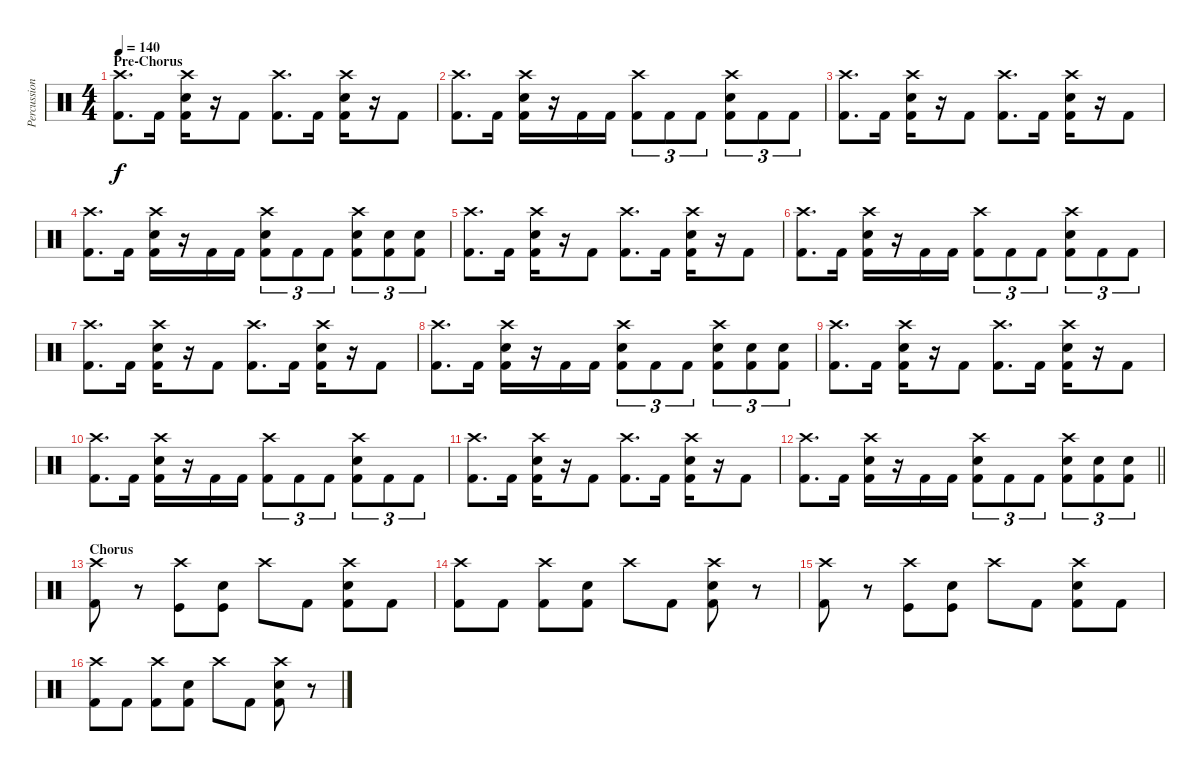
\track ("Percussion" "Percussion") {instrument percussion}
\staff {score}
\articulation defaults
\ts (4 4)
\section ("" "Pre-Chorus")
\tempo 140
\clef neutral
\ks c
("Crash high (hit)" "Kick (hit) 2").8{d dy f} "Kick (hit) 2".16 ("Crash high (hit)" "Electric Snare (hit)" "Kick (hit) 2").16 r.16 "Kick (hit) 2".8 ("Crash high (hit)" "Kick (hit) 2").8{d} "Kick (hit) 2".16 ("Crash high (hit)" "Electric Snare (hit)" "Kick (hit) 2").16 r.16 "Kick (hit) 2".8 |
("Crash high (hit)" "Kick (hit) 2").8{d} "Kick (hit) 2".16 ("Crash high (hit)" "Electric Snare (hit)" "Kick (hit) 2").16 r.16 "Kick (hit) 2".16 "Kick (hit) 2".16 ("Crash high (hit)" "Kick (hit) 2").8{tu (3 2)} "Kick (hit) 2".8{tu (3 2)} "Kick (hit) 2".8{tu (3 2)} ("Crash high (hit)" "Electric Snare (hit)" "Kick (hit) 2").8{tu (3 2)} "Kick (hit) 2".8{tu (3 2)} "Kick (hit) 2".8{tu (3 2)} |
("Crash high (hit)" "Kick (hit) 2").8{d} "Kick (hit) 2".16 ("Crash high (hit)" "Electric Snare (hit)" "Kick (hit) 2").16 r.16 "Kick (hit) 2".8 ("Crash high (hit)" "Kick (hit) 2").8{d} "Kick (hit) 2".16 ("Crash high (hit)" "Electric Snare (hit)" "Kick (hit) 2").16 r.16 "Kick (hit) 2".8 |
("Crash high (hit)" "Kick (hit) 2").8{d} "Kick (hit) 2".16 ("Crash high (hit)" "Electric Snare (hit)" "Kick (hit) 2").16 r.16 "Kick (hit) 2".16 "Kick (hit) 2".16 ("Crash high (hit)" "Electric Snare (hit)" "Kick (hit) 2").8{tu (3 2)} "Kick (hit) 2".8{tu (3 2)} "Kick (hit) 2".8{tu (3 2)} ("Crash high (hit)" "Electric Snare (hit)" "Kick (hit) 2").8{tu (3 2)} ("Electric Snare (hit)" "Kick (hit) 2").8{tu (3 2)} ("Electric Snare (hit)" "Kick (hit) 2").8{tu (3 2)} |
("Crash high (hit)" "Kick (hit) 2").8{d} "Kick (hit) 2".16 ("Crash high (hit)" "Electric Snare (hit)" "Kick (hit) 2").16 r.16 "Kick (hit) 2".8 ("Crash high (hit)" "Kick (hit) 2").8{d} "Kick (hit) 2".16 ("Crash high (hit)" "Electric Snare (hit)" "Kick (hit) 2").16 r.16 "Kick (hit) 2".8 |
("Crash high (hit)" "Kick (hit) 2").8{d} "Kick (hit) 2".16 ("Crash high (hit)" "Electric Snare (hit)" "Kick (hit) 2").16 r.16 "Kick (hit) 2".16 "Kick (hit) 2".16 ("Crash high (hit)" "Kick (hit) 2").8{tu (3 2)} "Kick (hit) 2".8{tu (3 2)} "Kick (hit) 2".8{tu (3 2)} ("Crash high (hit)" "Electric Snare (hit)" "Kick (hit) 2").8{tu (3 2)} "Kick (hit) 2".8{tu (3 2)} "Kick (hit) 2".8{tu (3 2)} |
("Crash high (hit)" "Kick (hit) 2").8{d} "Kick (hit) 2".16 ("Crash high (hit)" "Electric Snare (hit)" "Kick (hit) 2").16 r.16 "Kick (hit) 2".8 ("Crash high (hit)" "Kick (hit) 2").8{d} "Kick (hit) 2".16 ("Crash high (hit)" "Electric Snare (hit)" "Kick (hit) 2").16 r.16 "Kick (hit) 2".8 |
("Crash high (hit)" "Kick (hit) 2").8{d} "Kick (hit) 2".16 ("Crash high (hit)" "Electric Snare (hit)" "Kick (hit) 2").16 r.16 "Kick (hit) 2".16 "Kick (hit) 2".16 ("Crash high (hit)" "Electric Snare (hit)" "Kick (hit) 2").8{tu (3 2)} "Kick (hit) 2".8{tu (3 2)} "Kick (hit) 2".8{tu (3 2)} ("Crash high (hit)" "Electric Snare (hit)" "Kick (hit) 2").8{tu (3 2)} ("Electric Snare (hit)" "Kick (hit) 2").8{tu (3 2)} ("Electric Snare (hit)" "Kick (hit) 2").8{tu (3 2)} |
("Crash high (hit)" "Kick (hit) 2").8{d} "Kick (hit) 2".16 ("Crash high (hit)" "Electric Snare (hit)" "Kick (hit) 2").16 r.16 "Kick (hit) 2".8 ("Crash high (hit)" "Kick (hit) 2").8{d} "Kick (hit) 2".16 ("Crash high (hit)" "Electric Snare (hit)" "Kick (hit) 2").16 r.16 "Kick (hit) 2".8 |
("Crash high (hit)" "Kick (hit) 2").8{d} "Kick (hit) 2".16 ("Crash high (hit)" "Electric Snare (hit)" "Kick (hit) 2").16 r.16 "Kick (hit) 2".16 "Kick (hit) 2".16 ("Crash high (hit)" "Kick (hit) 2").8{tu (3 2)} "Kick (hit) 2".8{tu (3 2)} "Kick (hit) 2".8{tu (3 2)} ("Crash high (hit)" "Electric Snare (hit)" "Kick (hit) 2").8{tu (3 2)} "Kick (hit) 2".8{tu (3 2)} "Kick (hit) 2".8{tu (3 2)} |
("Crash high (hit)" "Kick (hit) 2").8{d} "Kick (hit) 2".16 ("Crash high (hit)" "Electric Snare (hit)" "Kick (hit) 2").16 r.16 "Kick (hit) 2".8 ("Crash high (hit)" "Kick (hit) 2").8{d} "Kick (hit) 2".16 ("Crash high (hit)" "Electric Snare (hit)" "Kick (hit) 2").16 r.16 "Kick (hit) 2".8 |
\barLineRight lightlight
("Crash high (hit)" "Kick (hit) 2").8{d} "Kick (hit) 2".16 ("Crash high (hit)" "Electric Snare (hit)" "Kick (hit) 2").16 r.16 "Kick (hit) 2".16 "Kick (hit) 2".16 ("Crash high (hit)" "Electric Snare (hit)" "Kick (hit) 2").8{tu (3 2)} "Kick (hit) 2".8{tu (3 2)} "Kick (hit) 2".8{tu (3 2)} ("Crash high (hit)" "Electric Snare (hit)" "Kick (hit) 2").8{tu (3 2)} ("Electric Snare (hit)" "Kick (hit) 2").8{tu (3 2)} ("Electric Snare (hit)" "Kick (hit) 2").8{tu (3 2)} |
\section ("" "Chorus")
("Crash high (hit)" "Kick (hit) 2").8 r.8 ("Crash high (hit)" "Kick (hit)").8 ("Electric Snare (hit)" "Kick (hit)").8 "Crash high (hit)".8 "Kick (hit) 2".8 ("Crash high (hit)" "Electric Snare (hit)" "Kick (hit) 2").8 "Kick (hit) 2".8 |
("Crash high (hit)" "Kick (hit) 2").8 "Kick (hit) 2".8 ("Crash high (hit)" "Kick (hit) 2").8 ("Electric Snare (hit)" "Kick (hit) 2").8 "Crash high (hit)".8 "Kick (hit) 2".8 ("Crash high (hit)" "Electric Snare (hit)" "Kick (hit) 2").8 r.8 |
("Crash high (hit)" "Kick (hit) 2").8 r.8 ("Crash high (hit)" "Kick (hit)").8 ("Electric Snare (hit)" "Kick (hit)").8 "Crash high (hit)".8 "Kick (hit) 2".8 ("Crash high (hit)" "Electric Snare (hit)" "Kick (hit) 2").8 "Kick (hit) 2".8 |
("Crash high (hit)" "Kick (hit) 2").8 "Kick (hit) 2".8 ("Crash high (hit)" "Kick (hit) 2").8 ("Electric Snare (hit)" "Kick (hit) 2").8 "Crash high (hit)".8 "Kick (hit) 2".8 ("Crash high (hit)" "Electric Snare (hit)" "Kick (hit) 2").8 r.8
